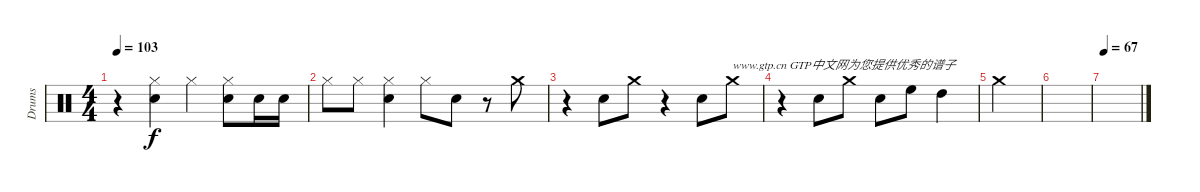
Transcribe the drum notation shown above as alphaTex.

\track ("Drums" "Drums") {instrument percussion}
\staff {score}
\articulation defaults
\ts (4 4)
\tempo 103
\clef neutral
\ks c
r.4{dy f} ("Hi-Hat (closed)" "Electric Snare (hit)").4 "Hi-Hat (closed)".4 ("Hi-Hat (closed)" "Electric Snare (hit)").8 "Electric Snare (hit)".16 "Electric Snare (hit)".16 |
"Hi-Hat (closed)".8 "Hi-Hat (closed)".8 ("Hi-Hat (closed)" "Electric Snare (hit)").4 "Hi-Hat (closed)".8 "Electric Snare (hit)".8 r.8 "Crash medium (hit)".8 |
r.4 "Electric Snare (hit)".8 "Crash medium (hit)".8 r.4 "Electric Snare (hit)".8 "Crash medium (hit)".8{txt "www.gtp.cn GTP中文网为您提供优秀的谱子"} |
r.4 "Electric Snare (hit)".8 "Crash medium (hit)".8 "Electric Snare (hit)".8 "High Floor Tom (hit)".8 "High Tom (hit)".4 |
"Crash medium (hit)".2 |
|
\tempo 67
